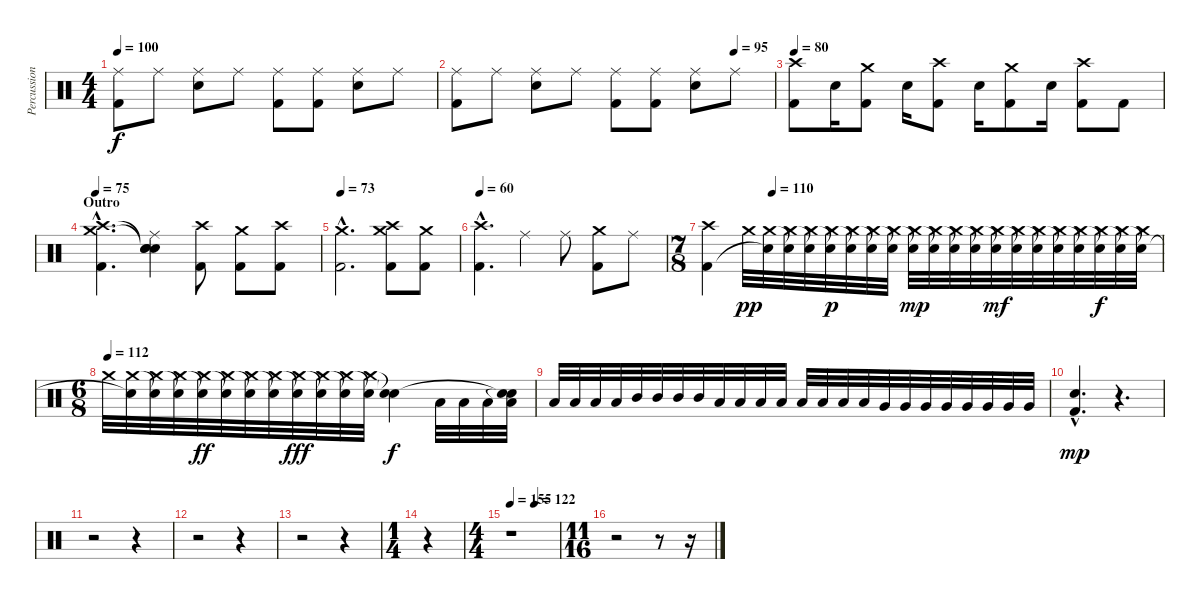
\track ("Percussion" "Percussion") {instrument percussion}
\staff {score}
\articulation defaults
\ts (4 4)
\tempo 100
\clef neutral
\ks c
("Ride (middle)" "Kick (hit) 2").8{dy f} "Ride (middle)".8 ("Ride (middle)" "Electric Snare (hit)").8 "Ride (middle)".8 ("Ride (middle)" "Kick (hit) 2").8 ("Ride (middle)" "Kick (hit) 2").8 ("Ride (middle)" "Electric Snare (hit)").8 "Ride (middle)".8 |
\tempo (95 0.875)
("Ride (middle)" "Kick (hit) 2").8 "Ride (middle)".8 ("Ride (middle)" "Electric Snare (hit)").8 "Ride (middle)".8 ("Ride (middle)" "Kick (hit) 2").8 ("Ride (middle)" "Kick (hit) 2").8 ("Ride (middle)" "Electric Snare (hit)").8 "Ride (middle)".8 |
\tempo 80
("Crash high (hit)" "Kick (hit) 2").8 "Electric Snare (hit)".16 ("Crash medium (hit)" "Kick (hit) 2").8 "Electric Snare (hit)".16 ("Crash high (hit)" "Kick (hit) 2").8 "Electric Snare (hit)".16 ("Crash medium (hit)" "Kick (hit) 2").8 "Electric Snare (hit)".16 ("Crash high (hit)" "Kick (hit) 2").8 "Kick (hit) 2".8 |
\section ("" "Outro")
\tempo 75
("Crash medium (hit)"{hac} "Crash high (hit)"{hac} "Kick (hit) 2"{hac}).4{d} ("Snare (hit)"{t} "Snare (hit)"{t} "Ride (middle)" "Snare (hit)").4 ("Crash high (hit)" "Kick (hit) 2").8 ("Crash medium (hit)" "Kick (hit) 2").8 ("Crash high (hit)" "Kick (hit) 2").8 |
\tempo 73
("Crash medium (hit)"{hac} "Kick (hit) 2"{hac}).2{d} ("Crash high (hit)" "Crash medium (hit)" "Kick (hit) 2").8 ("Crash medium (hit)" "Kick (hit) 2").8 |
\tempo 60
("Crash high (hit)"{hac} "Kick (hit) 2"{hac}).4{d} "Ride (middle)".4 "Ride (middle)".8 ("Crash medium (hit)" "Kick (hit) 2").8 "Ride (middle)".8 |
\ts (7 8)
\tempo (110 0.14285714285714285)
("Crash high (hit)" "Kick (hit) 2").4 "Crash medium (hit)".32{dy pp} ("Crash medium (hit)" "Snare (hit)"{t}).32 ("Snare (hit)"{t} "Crash medium (hit)").32 ("Crash medium (hit)" "Snare (hit)"{t}).32 ("Snare (hit)"{t} "Crash medium (hit)").32{dy p} ("Crash medium (hit)" "Snare (hit)"{t}).32 ("Snare (hit)"{t} "Crash medium (hit)").32 ("Crash medium (hit)" "Snare (hit)"{t}).32 ("Snare (hit)"{t} "Crash medium (hit)").32{dy mp} ("Crash medium (hit)" "Snare (hit)"{t}).32 ("Snare (hit)"{t} "Crash medium (hit)").32 ("Crash medium (hit)" "Snare (hit)"{t}).32 ("Snare (hit)"{t} "Crash medium (hit)").32{dy mf} ("Crash medium (hit)" "Snare (hit)"{t}).32 ("Snare (hit)"{t} "Crash medium (hit)").32 ("Crash medium (hit)" "Snare (hit)"{t}).32 ("Snare (hit)"{t} "Crash medium (hit)").32 ("Crash medium (hit)" "Snare (hit)"{t}).32{dy f} ("Snare (hit)"{t} "Crash medium (hit)").32 ("Crash medium (hit)" "Snare (hit)"{t}).32 |
\ts (6 8)
\tempo (112)
"Crash medium (hit)".32 ("Crash medium (hit)" "Snare (hit)"{t}).32 ("Snare (hit)"{t} "Crash medium (hit)").32 ("Crash medium (hit)" "Snare (hit)"{t}).32 ("Snare (hit)"{t} "Crash medium (hit)").32{dy ff} ("Crash medium (hit)" "Snare (hit)"{t}).32 ("Snare (hit)"{t} "Crash medium (hit)").32 ("Crash medium (hit)" "Snare (hit)"{t}).32 ("Snare (hit)"{t} "Crash medium (hit)").32{dy fff} ("Crash medium (hit)" "Snare (hit)"{t}).32 ("Snare (hit)"{t} "Crash medium (hit)").32 ("Crash medium (hit)" "Snare (hit)"{t}).32 ("Snare (hit)"{t} "Snare (hit)"{t}).4{dy f} "Low Tom (hit)".32 "Low Tom (hit)".32 "Low Tom (hit)".32 ("Snare (hit)"{t} "Snare (hit)"{t} "Low Tom (hit)").32 |
"Low Tom (hit)".32{volume 8} "Low Tom (hit)".32 "Low Tom (hit)".32 "Low Tom (hit)".32 "Mid Tom (hit)".32 "Mid Tom (hit)".32 "Mid Tom (hit)".32 "Mid Tom (hit)".32 "Low Tom (hit)".32 "Low Tom (hit)".32 "Low Tom (hit)".32 "Low Tom (hit)".32 "Low Tom (hit)".32 "Low Tom (hit)".32 "Low Tom (hit)".32 "Low Tom (hit)".32 "Very Low Tom (hit)".32 "Very Low Tom (hit)".32 "Very Low Tom (hit)".32 "Very Low Tom (hit)".32 "Very Low Tom (hit)".32 "Very Low Tom (hit)".32 "Very Low Tom (hit)".32 "Very Low Tom (hit)".32 |
("Electric Snare (hit)"{hac} "Kick (hit) 2"{hac}).4{d dy mp} r.4{d} |
r.2 r.4 |
r.2 r.4 |
r.2 r.4 |
\ts (1 4)
r.4 |
\ts (4 4)
\tempo 155
\tempo (122 0.5)
r.1 |
\ts (11 16)
r.2 r.8 r.16
